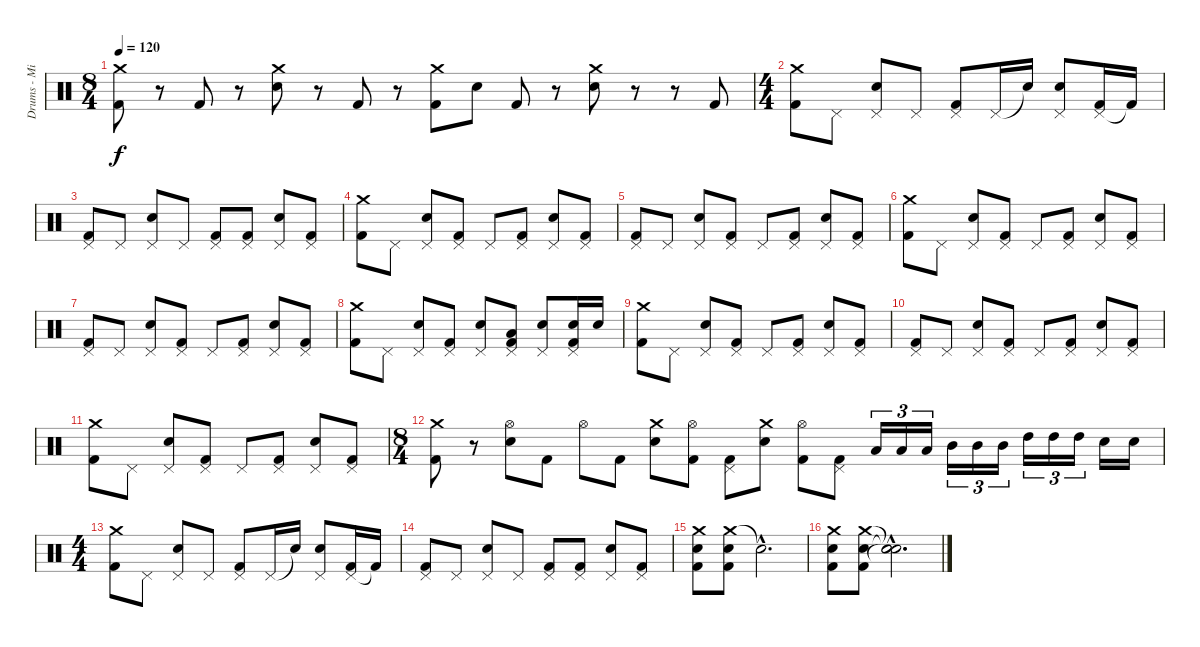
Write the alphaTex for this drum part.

\track ("Drums - Mike Dee" "Drums - Mi") {instrument percussion}
\staff {score}
\articulation defaults
\ts (8 4)
\tempo 120
\clef neutral
\ks c
("Crash medium (hit)" "Kick (hit) 2").8{dy f} r.8 "Kick (hit) 2".8 r.8 ("Crash medium (hit)" "Snare (hit) 2").8 r.8 "Kick (hit) 2".8 r.8 ("Crash medium (hit)" "Kick (hit) 2").8 "Electric Snare (hit)".8 "Kick (hit) 2".8 r.8 ("Crash medium (hit)" "Snare (hit) 2").8 r.8 r.8 "Kick (hit) 2".8 |
\ts (4 4)
("Crash medium (hit)" "Kick (hit) 2").8 "Pedal Hi-Hat (hit)".8 ("Pedal Hi-Hat (hit)" "Snare (hit) 2").8 "Pedal Hi-Hat (hit)".8 ("Pedal Hi-Hat (hit)" "Kick (hit) 2").8 "Pedal Hi-Hat (hit)".16 "Snare (hit)"{t}.16 ("Pedal Hi-Hat (hit)" "Snare (hit) 2").8 ("Pedal Hi-Hat (hit)" "Kick (hit) 2").16 "Kick (hit) 2"{t}.16 |
("Pedal Hi-Hat (hit)" "Kick (hit) 2").8 "Pedal Hi-Hat (hit)".8 ("Pedal Hi-Hat (hit)" "Snare (hit) 2").8 "Pedal Hi-Hat (hit)".8 ("Pedal Hi-Hat (hit)" "Kick (hit) 2").8 ("Pedal Hi-Hat (hit)" "Kick (hit) 2").8 ("Pedal Hi-Hat (hit)" "Snare (hit) 2").8 ("Pedal Hi-Hat (hit)" "Kick (hit) 2").8 |
("Crash medium (hit)" "Kick (hit) 2").8 "Pedal Hi-Hat (hit)".8 ("Pedal Hi-Hat (hit)" "Snare (hit) 2").8 ("Pedal Hi-Hat (hit)" "Kick (hit) 2").8 "Pedal Hi-Hat (hit)".8 ("Pedal Hi-Hat (hit)" "Kick (hit) 2").8 ("Pedal Hi-Hat (hit)" "Snare (hit) 2").8 ("Pedal Hi-Hat (hit)" "Kick (hit) 2").8 |
("Pedal Hi-Hat (hit)" "Kick (hit) 2").8 "Pedal Hi-Hat (hit)".8 ("Pedal Hi-Hat (hit)" "Snare (hit) 2").8 ("Pedal Hi-Hat (hit)" "Kick (hit) 2").8 "Pedal Hi-Hat (hit)".8 ("Pedal Hi-Hat (hit)" "Kick (hit) 2").8 ("Pedal Hi-Hat (hit)" "Snare (hit) 2").8 ("Pedal Hi-Hat (hit)" "Kick (hit) 2").8 |
("Crash medium (hit)" "Kick (hit) 2").8 "Pedal Hi-Hat (hit)".8 ("Pedal Hi-Hat (hit)" "Snare (hit) 2").8 ("Pedal Hi-Hat (hit)" "Kick (hit) 2").8 "Pedal Hi-Hat (hit)".8 ("Pedal Hi-Hat (hit)" "Kick (hit) 2").8 ("Pedal Hi-Hat (hit)" "Snare (hit) 2").8 ("Pedal Hi-Hat (hit)" "Kick (hit) 2").8 |
("Pedal Hi-Hat (hit)" "Kick (hit) 2").8 "Pedal Hi-Hat (hit)".8 ("Pedal Hi-Hat (hit)" "Snare (hit) 2").8 ("Pedal Hi-Hat (hit)" "Kick (hit) 2").8 "Pedal Hi-Hat (hit)".8 ("Pedal Hi-Hat (hit)" "Kick (hit) 2").8 ("Pedal Hi-Hat (hit)" "Snare (hit) 2").8 ("Pedal Hi-Hat (hit)" "Kick (hit) 2").8 |
("Crash medium (hit)" "Kick (hit) 2").8 "Pedal Hi-Hat (hit)".8 ("Pedal Hi-Hat (hit)" "Snare (hit) 2").8 ("Pedal Hi-Hat (hit)" "Kick (hit) 2").8 ("Pedal Hi-Hat (hit)" "Snare (hit) 2").8 ("Pedal Hi-Hat (hit)" "Low Tom (hit)" "Kick (hit) 2").8 ("Pedal Hi-Hat (hit)" "Snare (hit) 2").8 ("Pedal Hi-Hat (hit)" "Snare (hit) 2" "Kick (hit) 2").16 "Snare (hit) 2".16 |
("Crash medium (hit)" "Kick (hit) 2").8 "Pedal Hi-Hat (hit)".8 ("Pedal Hi-Hat (hit)" "Snare (hit) 2").8 ("Pedal Hi-Hat (hit)" "Kick (hit) 2").8 "Pedal Hi-Hat (hit)".8 ("Pedal Hi-Hat (hit)" "Kick (hit) 2").8 ("Pedal Hi-Hat (hit)" "Snare (hit) 2").8 ("Pedal Hi-Hat (hit)" "Kick (hit) 2").8 |
("Pedal Hi-Hat (hit)" "Kick (hit) 2").8 "Pedal Hi-Hat (hit)".8 ("Pedal Hi-Hat (hit)" "Snare (hit) 2").8 ("Pedal Hi-Hat (hit)" "Kick (hit) 2").8 "Pedal Hi-Hat (hit)".8 ("Pedal Hi-Hat (hit)" "Kick (hit) 2").8 ("Pedal Hi-Hat (hit)" "Snare (hit) 2").8 ("Pedal Hi-Hat (hit)" "Kick (hit) 2").8 |
("Crash medium (hit)" "Kick (hit) 2").8 "Pedal Hi-Hat (hit)".8 ("Pedal Hi-Hat (hit)" "Snare (hit) 2").8 ("Pedal Hi-Hat (hit)" "Kick (hit) 2").8 "Pedal Hi-Hat (hit)".8 ("Pedal Hi-Hat (hit)" "Kick (hit) 2").8 ("Pedal Hi-Hat (hit)" "Snare (hit) 2").8 ("Pedal Hi-Hat (hit)" "Kick (hit) 2").8 |
\ts (8 4)
("Crash medium (hit)" "Kick (hit) 2").8 r.8 ("Hi-Hat (open)" "Snare (hit) 2").8 "Kick (hit) 2".8 "Hi-Hat (open)".8 "Kick (hit) 2".8 ("Crash medium (hit)" "Snare (hit) 2").8 ("Hi-Hat (open)" "Kick (hit) 2").8 ("Pedal Hi-Hat (hit)" "Kick (hit) 2").8 ("Crash medium (hit)" "Snare (hit) 2").8 ("Hi-Hat (open)" "Kick (hit) 2").8 ("Pedal Hi-Hat (hit)" "Kick (hit) 2").8 "Low Tom (hit)".16{tu (3 2)} "Low Tom (hit)".16{tu (3 2)} "Low Tom (hit)".16{tu (3 2)} "Mid Tom (hit)".16{tu (3 2)} "Mid Tom (hit)".16{tu (3 2)} "Mid Tom (hit)".16{tu (3 2)} "High Tom (hit)".16{tu (3 2)} "High Tom (hit)".16{tu (3 2)} "High Tom (hit)".16{tu (3 2)} "Snare (hit) 2".16 "Snare (hit) 2".16 |
\ts (4 4)
("Crash medium (hit)" "Kick (hit) 2").8 "Pedal Hi-Hat (hit)".8 ("Pedal Hi-Hat (hit)" "Snare (hit) 2").8 "Pedal Hi-Hat (hit)".8 ("Pedal Hi-Hat (hit)" "Kick (hit) 2").8 "Pedal Hi-Hat (hit)".16 "Snare (hit)"{t}.16 ("Pedal Hi-Hat (hit)" "Snare (hit) 2").8 ("Pedal Hi-Hat (hit)" "Kick (hit) 2").16 "Kick (hit) 2"{t}.16 |
("Pedal Hi-Hat (hit)" "Kick (hit) 2").8 "Pedal Hi-Hat (hit)".8 ("Pedal Hi-Hat (hit)" "Snare (hit) 2").8 "Pedal Hi-Hat (hit)".8 ("Pedal Hi-Hat (hit)" "Kick (hit) 2").8 ("Pedal Hi-Hat (hit)" "Kick (hit) 2").8 ("Pedal Hi-Hat (hit)" "Snare (hit) 2").8 ("Pedal Hi-Hat (hit)" "Kick (hit) 2").8 |
("Crash medium (hit)" "Snare (hit) 2" "Kick (hit) 2").8 ("Crash medium (hit)" "Snare (hit) 2" "Kick (hit) 2").8 "Snare (hit)"{hac t}.2{d} |
("Crash medium (hit)" "Snare (hit) 2" "Kick (hit) 2").8 ("Crash medium (hit)" "Snare (hit) 2" "Kick (hit) 2").8 ("Snare (hit)"{hac t} "Snare (hit)"{hac t} "Snare (hit)"{hac t}).2{d}
